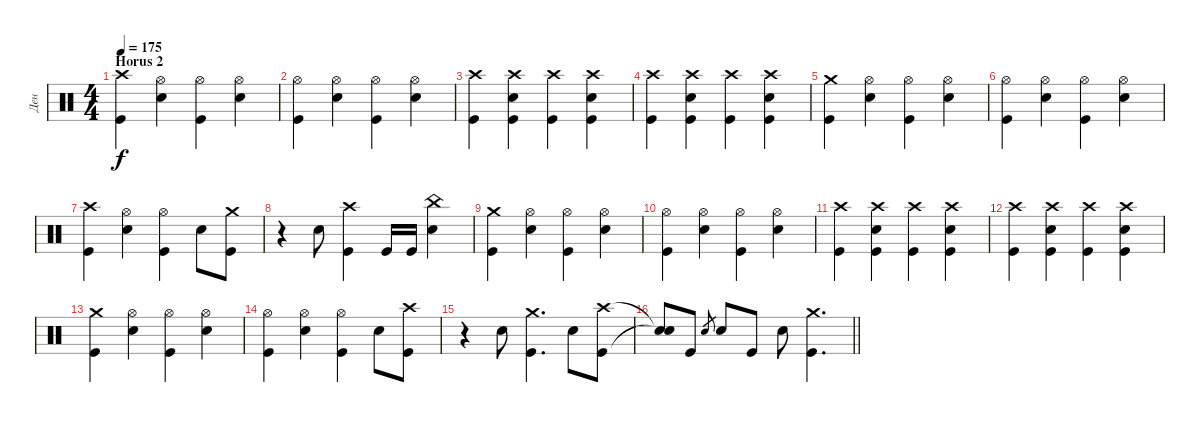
\track ("Ден" "Ден") {instrument percussion}
\staff {score}
\articulation defaults
\ts (4 4)
\section ("" "Horus 2")
\tempo 175
\clef neutral
\ks c
("Crash high (hit)" "Kick (hit)").4{dy f} ("Hi-Hat (open)" "Snare (hit) 2").4 ("Hi-Hat (open)" "Kick (hit)").4 ("Hi-Hat (open)" "Snare (hit) 2").4 |
("Hi-Hat (open)" "Kick (hit)").4 ("Hi-Hat (open)" "Snare (hit) 2").4 ("Hi-Hat (open)" "Kick (hit)").4 ("Hi-Hat (open)" "Snare (hit) 2").4 |
("Crash high (hit)" "Kick (hit)").4 ("Crash high (hit)" "Snare (hit) 2" "Kick (hit)").4 ("Crash high (hit)" "Kick (hit)").4 ("Crash high (hit)" "Snare (hit) 2" "Kick (hit)").4 |
("Crash high (hit)" "Kick (hit)").4 ("Crash high (hit)" "Snare (hit) 2" "Kick (hit)").4 ("Crash high (hit)" "Kick (hit)").4 ("Crash high (hit)" "Snare (hit) 2" "Kick (hit)").4 |
("Crash medium (hit)" "Kick (hit)").4 ("Hi-Hat (open)" "Snare (hit) 2").4 ("Hi-Hat (open)" "Kick (hit)").4 ("Hi-Hat (open)" "Snare (hit) 2").4 |
("Hi-Hat (open)" "Kick (hit)").4 ("Hi-Hat (open)" "Snare (hit) 2").4 ("Hi-Hat (open)" "Kick (hit)").4 ("Hi-Hat (open)" "Snare (hit) 2").4 |
("Crash high (hit)" "Kick (hit)").4 ("Hi-Hat (open)" "Snare (hit) 2").4 ("Hi-Hat (open)" "Kick (hit)").4 "Snare (hit) 2".8 ("Crash medium (hit)" "Kick (hit)").8 |
r.4 "Snare (hit) 2".8 ("Crash high (hit)" "Kick (hit)").4 "Kick (hit)".16 "Kick (hit)".16 ("China (hit)" "Snare (hit) 2").4 |
("Crash medium (hit)" "Kick (hit)").4 ("Hi-Hat (open)" "Snare (hit) 2").4 ("Hi-Hat (open)" "Kick (hit)").4 ("Hi-Hat (open)" "Snare (hit) 2").4 |
("Hi-Hat (open)" "Kick (hit)").4 ("Hi-Hat (open)" "Snare (hit) 2").4 ("Hi-Hat (open)" "Kick (hit)").4 ("Hi-Hat (open)" "Snare (hit) 2").4 |
("Crash high (hit)" "Kick (hit)").4 ("Crash high (hit)" "Snare (hit) 2" "Kick (hit)").4 ("Crash high (hit)" "Kick (hit)").4 ("Crash high (hit)" "Snare (hit) 2" "Kick (hit)").4 |
("Crash high (hit)" "Kick (hit)").4 ("Crash high (hit)" "Snare (hit) 2" "Kick (hit)").4 ("Crash high (hit)" "Kick (hit)").4 ("Crash high (hit)" "Snare (hit) 2" "Kick (hit)").4 |
("Crash medium (hit)" "Kick (hit)").4 ("Hi-Hat (open)" "Snare (hit) 2").4 ("Hi-Hat (open)" "Kick (hit)").4 ("Hi-Hat (open)" "Snare (hit) 2").4 |
("Hi-Hat (open)" "Kick (hit)").4 ("Hi-Hat (open)" "Snare (hit) 2").4 ("Hi-Hat (open)" "Kick (hit)").4 "Snare (hit) 2".8 ("Crash high (hit)" "Kick (hit)").8 |
r.4 "Snare (hit) 2".8 ("Crash medium (hit)" "Kick (hit)").4{d} "Snare (hit) 2".8 ("Crash high (hit)" "Kick (hit)").8 |
\barLineRight lightlight
("Snare (hit)"{t} "Snare (hit)"{t}).8 "Kick (hit)".8 "Snare (hit) 2".8{gr} "Snare (hit) 2".8 "Kick (hit)".8 "Snare (hit) 2".8 ("Crash medium (hit)" "Kick (hit)").4{d}
